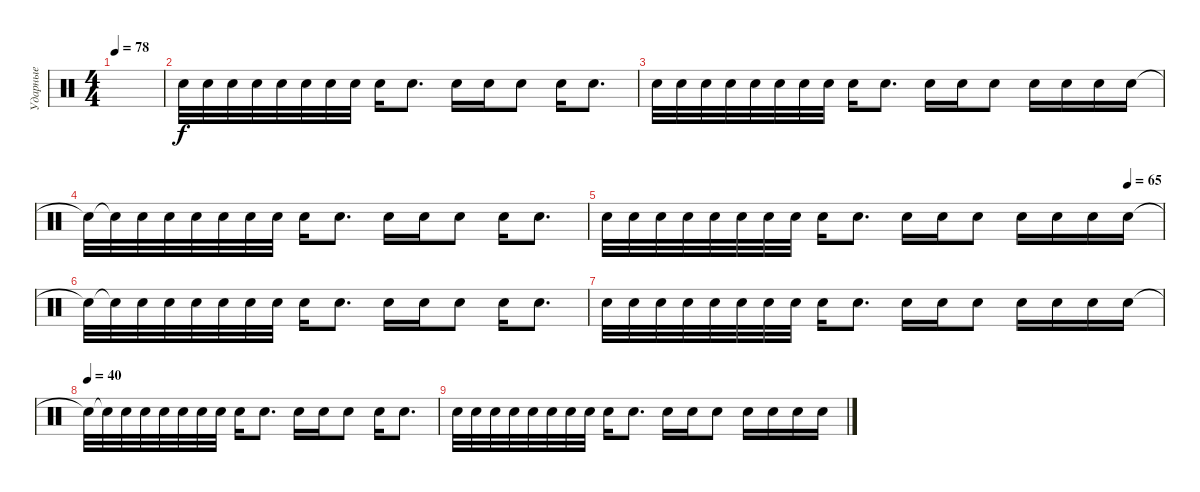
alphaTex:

\track ("Ударные" "Ударные") {instrument percussion}
\staff {score}
\articulation defaults
\ts (4 4)
\tempo 78
\clef neutral
\ks c
|
"Snare (hit) 2".32 "Snare (hit) 2".32 "Snare (hit) 2".32 "Snare (hit) 2".32 "Snare (hit) 2".32 "Snare (hit) 2".32 "Snare (hit) 2".32 "Snare (hit) 2".32 "Snare (hit) 2".16 "Snare (hit) 2".8{d} "Snare (hit) 2".16 "Snare (hit) 2".16 "Snare (hit) 2".8 "Snare (hit) 2".16 "Snare (hit) 2".8{d} |
"Snare (hit) 2".32 "Snare (hit) 2".32 "Snare (hit) 2".32 "Snare (hit) 2".32 "Snare (hit) 2".32 "Snare (hit) 2".32 "Snare (hit) 2".32 "Snare (hit) 2".32 "Snare (hit) 2".16 "Snare (hit) 2".8{d} "Snare (hit) 2".16 "Snare (hit) 2".16 "Snare (hit) 2".8 "Snare (hit) 2".16 "Snare (hit) 2".16 "Snare (hit) 2".16 "Snare (hit) 2".16 |
"Snare (hit) 2"{t}.32 "Snare (hit) 2"{t}.32 "Snare (hit) 2".32 "Snare (hit) 2".32 "Snare (hit) 2".32 "Snare (hit) 2".32 "Snare (hit) 2".32 "Snare (hit) 2".32 "Snare (hit) 2".16 "Snare (hit) 2".8{d} "Snare (hit) 2".16 "Snare (hit) 2".16 "Snare (hit) 2".8 "Snare (hit) 2".16 "Snare (hit) 2".8{d} |
\tempo (65 0.9375)
"Snare (hit) 2".32 "Snare (hit) 2".32 "Snare (hit) 2".32 "Snare (hit) 2".32 "Snare (hit) 2".32 "Snare (hit) 2".32 "Snare (hit) 2".32 "Snare (hit) 2".32 "Snare (hit) 2".16 "Snare (hit) 2".8{d} "Snare (hit) 2".16 "Snare (hit) 2".16 "Snare (hit) 2".8 "Snare (hit) 2".16 "Snare (hit) 2".16 "Snare (hit) 2".16 "Snare (hit) 2".16 |
"Snare (hit) 2"{t}.32 "Snare (hit) 2"{t}.32 "Snare (hit) 2".32 "Snare (hit) 2".32 "Snare (hit) 2".32 "Snare (hit) 2".32 "Snare (hit) 2".32 "Snare (hit) 2".32 "Snare (hit) 2".16 "Snare (hit) 2".8{d} "Snare (hit) 2".16 "Snare (hit) 2".16 "Snare (hit) 2".8 "Snare (hit) 2".16 "Snare (hit) 2".8{d} |
"Snare (hit) 2".32 "Snare (hit) 2".32 "Snare (hit) 2".32 "Snare (hit) 2".32 "Snare (hit) 2".32 "Snare (hit) 2".32 "Snare (hit) 2".32 "Snare (hit) 2".32 "Snare (hit) 2".16 "Snare (hit) 2".8{d} "Snare (hit) 2".16 "Snare (hit) 2".16 "Snare (hit) 2".8 "Snare (hit) 2".16 "Snare (hit) 2".16 "Snare (hit) 2".16 "Snare (hit) 2".16 |
\tempo (40)
"Snare (hit) 2"{t}.32 "Snare (hit) 2"{t}.32 "Snare (hit) 2".32 "Snare (hit) 2".32 "Snare (hit) 2".32 "Snare (hit) 2".32 "Snare (hit) 2".32 "Snare (hit) 2".32 "Snare (hit) 2".16 "Snare (hit) 2".8{d} "Snare (hit) 2".16 "Snare (hit) 2".16 "Snare (hit) 2".8 "Snare (hit) 2".16 "Snare (hit) 2".8{d} |
"Snare (hit) 2".32 "Snare (hit) 2".32 "Snare (hit) 2".32 "Snare (hit) 2".32 "Snare (hit) 2".32 "Snare (hit) 2".32 "Snare (hit) 2".32 "Snare (hit) 2".32 "Snare (hit) 2".16 "Snare (hit) 2".8{d} "Snare (hit) 2".16 "Snare (hit) 2".16 "Snare (hit) 2".8 "Snare (hit) 2".16 "Snare (hit) 2".16 "Snare (hit) 2".16 "Snare (hit) 2".16
